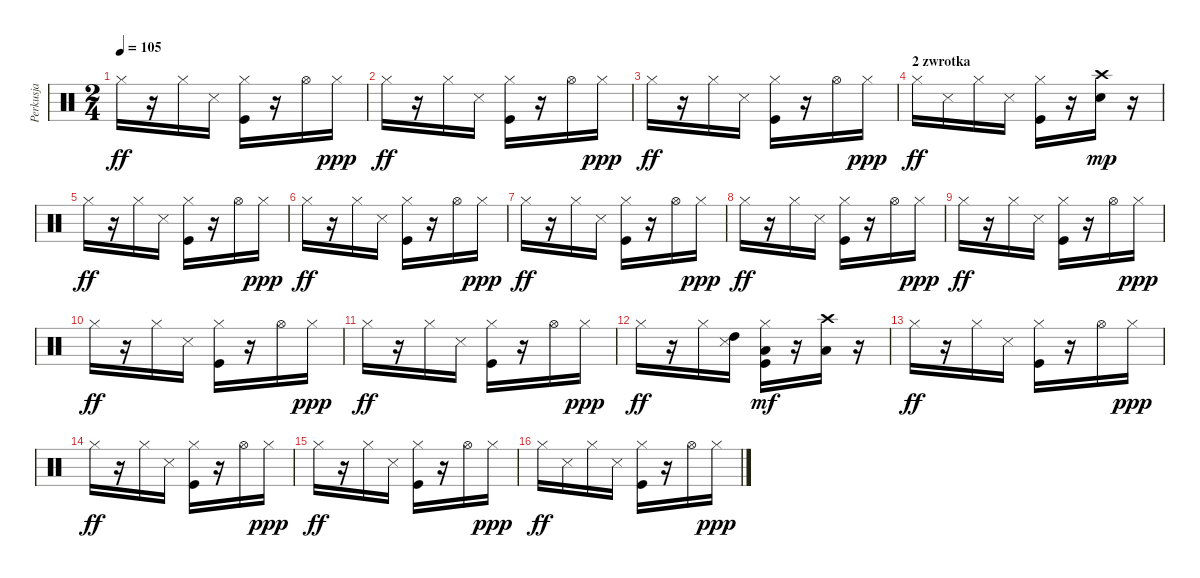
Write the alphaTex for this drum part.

\track ("Perkusja" "Perkusja") {instrument percussion}
\staff {score}
\articulation defaults
\ts (2 4)
\tempo 105
\clef neutral
\ks c "Hi-Hat (closed)".16{dy ff}
r.16 "Hi-Hat (closed)".16 "Snare (side stick) 3".16 ("Kick (hit)" "Hi-Hat (closed)").16 r.16 "Hi-Hat (open)".16 "Hi-Hat (closed)".16{dy ppp} |
"Hi-Hat (closed)".16{dy ff} r.16 "Hi-Hat (closed)".16 "Snare (side stick) 3".16 ("Kick (hit)" "Hi-Hat (closed)").16 r.16 "Hi-Hat (open)".16 "Hi-Hat (closed)".16{dy ppp} |
"Hi-Hat (closed)".16{dy ff} r.16 "Hi-Hat (closed)".16 "Snare (side stick) 3".16 ("Kick (hit)" "Hi-Hat (closed)").16 r.16 "Hi-Hat (open)".16 "Hi-Hat (closed)".16{dy ppp} |
\section ("" "2 zwrotka")
"Hi-Hat (closed)".16{dy ff} "Snare (side stick) 3".16 "Hi-Hat (closed)".16 "Snare (side stick) 3".16 ("Kick (hit)" "Hi-Hat (closed)").16 r.16 ("Snare (hit) 2" "Crash high (hit)").16{dy mp} r.16 |
"Hi-Hat (closed)".16{dy ff} r.16 "Hi-Hat (closed)".16 "Snare (side stick) 3".16 ("Kick (hit)" "Hi-Hat (closed)").16 r.16 "Hi-Hat (open)".16 "Hi-Hat (closed)".16{dy ppp} |
"Hi-Hat (closed)".16{dy ff} r.16 "Hi-Hat (closed)".16 "Snare (side stick) 3".16 ("Kick (hit)" "Hi-Hat (closed)").16 r.16 "Hi-Hat (open)".16 "Hi-Hat (closed)".16{dy ppp} |
"Hi-Hat (closed)".16{dy ff} r.16 "Hi-Hat (closed)".16 "Snare (side stick) 3".16 ("Kick (hit)" "Hi-Hat (closed)").16 r.16 "Hi-Hat (open)".16 "Hi-Hat (closed)".16{dy ppp} |
"Hi-Hat (closed)".16{dy ff} r.16 "Hi-Hat (closed)".16 "Snare (side stick) 3".16 ("Kick (hit)" "Hi-Hat (closed)").16 r.16 "Hi-Hat (open)".16 "Hi-Hat (closed)".16{dy ppp} |
"Hi-Hat (closed)".16{dy ff} r.16 "Hi-Hat (closed)".16 "Snare (side stick) 3".16 ("Kick (hit)" "Hi-Hat (closed)").16 r.16 "Hi-Hat (open)".16 "Hi-Hat (closed)".16{dy ppp} |
"Hi-Hat (closed)".16{dy ff} r.16 "Hi-Hat (closed)".16 "Snare (side stick) 3".16 ("Kick (hit)" "Hi-Hat (closed)").16 r.16 "Hi-Hat (open)".16 "Hi-Hat (closed)".16{dy ppp} |
"Hi-Hat (closed)".16{dy ff} r.16 "Hi-Hat (closed)".16 "Snare (side stick) 3".16 ("Kick (hit)" "Hi-Hat (closed)").16 r.16 "Hi-Hat (open)".16 "Hi-Hat (closed)".16{dy ppp} |
"Hi-Hat (closed)".16{dy ff} r.16 "Hi-Hat (closed)".16 ("Snare (side stick) 3" "High Tom (hit)").16 ("Kick (hit)" "Hi-Hat (closed)" "Low Tom (hit)").16{dy mf} r.16 ("Crash high (hit)" "Low Tom (hit)").16 r.16 |
"Hi-Hat (closed)".16{dy ff} r.16 "Hi-Hat (closed)".16 "Snare (side stick) 3".16 ("Kick (hit)" "Hi-Hat (closed)").16 r.16 "Hi-Hat (open)".16 "Hi-Hat (closed)".16{dy ppp} |
"Hi-Hat (closed)".16{dy ff} r.16 "Hi-Hat (closed)".16 "Snare (side stick) 3".16 ("Kick (hit)" "Hi-Hat (closed)").16 r.16 "Hi-Hat (open)".16 "Hi-Hat (closed)".16{dy ppp} |
"Hi-Hat (closed)".16{dy ff} r.16 "Hi-Hat (closed)".16 "Snare (side stick) 3".16 ("Kick (hit)" "Hi-Hat (closed)").16 r.16 "Hi-Hat (open)".16 "Hi-Hat (closed)".16{dy ppp} |
"Hi-Hat (closed)".16{dy ff} "Snare (side stick) 3".16 "Hi-Hat (closed)".16 "Snare (side stick) 3".16 ("Kick (hit)" "Hi-Hat (closed)").16 r.16 "Hi-Hat (open)".16 "Hi-Hat (closed)".16{dy ppp}
